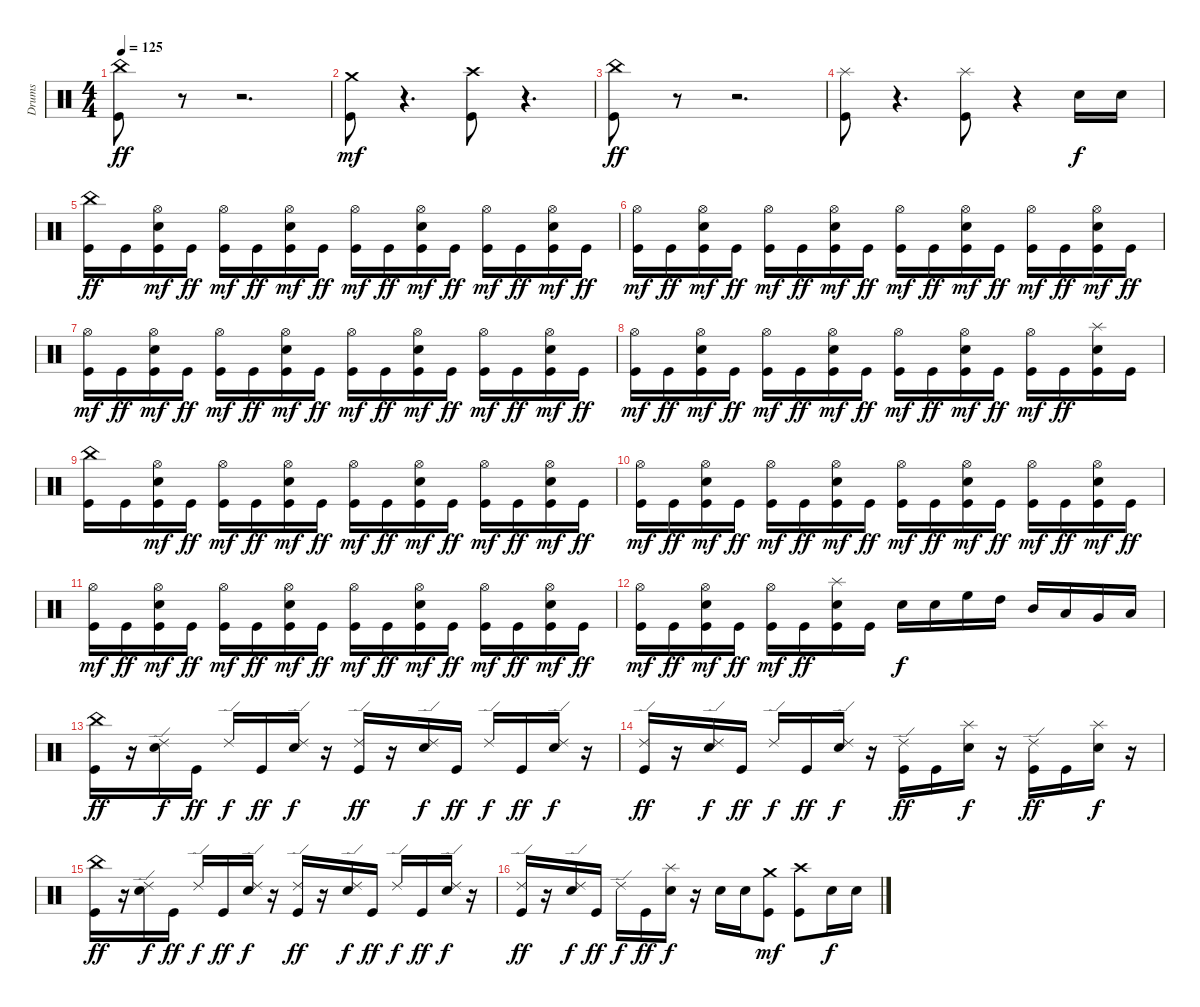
\track ("Drums" "Drums") {instrument percussion}
\staff {score}
\articulation defaults
\ts (4 4)
\tempo 125
\clef neutral
\ks c
("Kick (hit)" "China (hit)").8{dy ff} r.8 r.2{d} |
("Kick (hit)" "Crash medium (hit)").8{dy mf} r.4{d} ("Kick (hit)" "Crash high (hit)").8 r.4{d} |
("Kick (hit)" "China (hit)").8{dy ff} r.8 r.2{d} |
("Kick (hit)" "Splash (hit)").8 r.4{d} ("Kick (hit)" "Splash (hit)").8 r.4 "Electric Snare (hit)".16{dy f} "Electric Snare (hit)".16 |
("Kick (hit)" "China (hit)").16{dy ff} "Kick (hit)".16 ("Kick (hit)" "Electric Snare (hit)" "Hi-Hat (open)").16{dy mf} "Kick (hit)".16{dy ff} ("Kick (hit)" "Hi-Hat (open)").16{dy mf} "Kick (hit)".16{dy ff} ("Kick (hit)" "Electric Snare (hit)" "Hi-Hat (open)").16{dy mf} "Kick (hit)".16{dy ff} ("Kick (hit)" "Hi-Hat (open)").16{dy mf} "Kick (hit)".16{dy ff} ("Kick (hit)" "Electric Snare (hit)" "Hi-Hat (open)").16{dy mf} "Kick (hit)".16{dy ff} ("Kick (hit)" "Hi-Hat (open)").16{dy mf} "Kick (hit)".16{dy ff} ("Kick (hit)" "Electric Snare (hit)" "Hi-Hat (open)").16{dy mf} "Kick (hit)".16{dy ff} |
("Kick (hit)" "Hi-Hat (open)").16{dy mf} "Kick (hit)".16{dy ff} ("Kick (hit)" "Electric Snare (hit)" "Hi-Hat (open)").16{dy mf} "Kick (hit)".16{dy ff} ("Kick (hit)" "Hi-Hat (open)").16{dy mf} "Kick (hit)".16{dy ff} ("Kick (hit)" "Electric Snare (hit)" "Hi-Hat (open)").16{dy mf} "Kick (hit)".16{dy ff} ("Kick (hit)" "Hi-Hat (open)").16{dy mf} "Kick (hit)".16{dy ff} ("Kick (hit)" "Electric Snare (hit)" "Hi-Hat (open)").16{dy mf} "Kick (hit)".16{dy ff} ("Kick (hit)" "Hi-Hat (open)").16{dy mf} "Kick (hit)".16{dy ff} ("Kick (hit)" "Electric Snare (hit)" "Hi-Hat (open)").16{dy mf} "Kick (hit)".16{dy ff} |
("Kick (hit)" "Hi-Hat (open)").16{dy mf} "Kick (hit)".16{dy ff} ("Kick (hit)" "Electric Snare (hit)" "Hi-Hat (open)").16{dy mf} "Kick (hit)".16{dy ff} ("Kick (hit)" "Hi-Hat (open)").16{dy mf} "Kick (hit)".16{dy ff} ("Kick (hit)" "Electric Snare (hit)" "Hi-Hat (open)").16{dy mf} "Kick (hit)".16{dy ff} ("Kick (hit)" "Hi-Hat (open)").16{dy mf} "Kick (hit)".16{dy ff} ("Kick (hit)" "Electric Snare (hit)" "Hi-Hat (open)").16{dy mf} "Kick (hit)".16{dy ff} ("Kick (hit)" "Hi-Hat (open)").16{dy mf} "Kick (hit)".16{dy ff} ("Kick (hit)" "Electric Snare (hit)" "Hi-Hat (open)").16{dy mf} "Kick (hit)".16{dy ff} |
("Kick (hit)" "Hi-Hat (open)").16{dy mf} "Kick (hit)".16{dy ff} ("Kick (hit)" "Electric Snare (hit)" "Hi-Hat (open)").16{dy mf} "Kick (hit)".16{dy ff} ("Kick (hit)" "Hi-Hat (open)").16{dy mf} "Kick (hit)".16{dy ff} ("Kick (hit)" "Electric Snare (hit)" "Hi-Hat (open)").16{dy mf} "Kick (hit)".16{dy ff} ("Kick (hit)" "Hi-Hat (open)").16{dy mf} "Kick (hit)".16{dy ff} ("Kick (hit)" "Electric Snare (hit)" "Hi-Hat (open)").16{dy mf} "Kick (hit)".16{dy ff} ("Kick (hit)" "Hi-Hat (open)").16{dy mf} "Kick (hit)".16{dy ff} ("Kick (hit)" "Electric Snare (hit)" "Splash (hit)").16 "Kick (hit)".16 |
("Kick (hit)" "China (hit)").16 "Kick (hit)".16 ("Kick (hit)" "Electric Snare (hit)" "Hi-Hat (open)").16{dy mf} "Kick (hit)".16{dy ff} ("Kick (hit)" "Hi-Hat (open)").16{dy mf} "Kick (hit)".16{dy ff} ("Kick (hit)" "Electric Snare (hit)" "Hi-Hat (open)").16{dy mf} "Kick (hit)".16{dy ff} ("Kick (hit)" "Hi-Hat (open)").16{dy mf} "Kick (hit)".16{dy ff} ("Kick (hit)" "Electric Snare (hit)" "Hi-Hat (open)").16{dy mf} "Kick (hit)".16{dy ff} ("Kick (hit)" "Hi-Hat (open)").16{dy mf} "Kick (hit)".16{dy ff} ("Kick (hit)" "Electric Snare (hit)" "Hi-Hat (open)").16{dy mf} "Kick (hit)".16{dy ff} |
("Kick (hit)" "Hi-Hat (open)").16{dy mf} "Kick (hit)".16{dy ff} ("Kick (hit)" "Electric Snare (hit)" "Hi-Hat (open)").16{dy mf} "Kick (hit)".16{dy ff} ("Kick (hit)" "Hi-Hat (open)").16{dy mf} "Kick (hit)".16{dy ff} ("Kick (hit)" "Electric Snare (hit)" "Hi-Hat (open)").16{dy mf} "Kick (hit)".16{dy ff} ("Kick (hit)" "Hi-Hat (open)").16{dy mf} "Kick (hit)".16{dy ff} ("Kick (hit)" "Electric Snare (hit)" "Hi-Hat (open)").16{dy mf} "Kick (hit)".16{dy ff} ("Kick (hit)" "Hi-Hat (open)").16{dy mf} "Kick (hit)".16{dy ff} ("Kick (hit)" "Electric Snare (hit)" "Hi-Hat (open)").16{dy mf} "Kick (hit)".16{dy ff} |
("Kick (hit)" "Hi-Hat (open)").16{dy mf} "Kick (hit)".16{dy ff} ("Kick (hit)" "Electric Snare (hit)" "Hi-Hat (open)").16{dy mf} "Kick (hit)".16{dy ff} ("Kick (hit)" "Hi-Hat (open)").16{dy mf} "Kick (hit)".16{dy ff} ("Kick (hit)" "Electric Snare (hit)" "Hi-Hat (open)").16{dy mf} "Kick (hit)".16{dy ff} ("Kick (hit)" "Hi-Hat (open)").16{dy mf} "Kick (hit)".16{dy ff} ("Kick (hit)" "Electric Snare (hit)" "Hi-Hat (open)").16{dy mf} "Kick (hit)".16{dy ff} ("Kick (hit)" "Hi-Hat (open)").16{dy mf} "Kick (hit)".16{dy ff} ("Kick (hit)" "Electric Snare (hit)" "Hi-Hat (open)").16{dy mf} "Kick (hit)".16{dy ff} |
("Kick (hit)" "Hi-Hat (open)").16{dy mf} "Kick (hit)".16{dy ff} ("Kick (hit)" "Electric Snare (hit)" "Hi-Hat (open)").16{dy mf} "Kick (hit)".16{dy ff} ("Kick (hit)" "Hi-Hat (open)").16{dy mf} "Kick (hit)".16{dy ff} ("Kick (hit)" "Electric Snare (hit)" "Splash (hit)").16 "Kick (hit)".16 "Electric Snare (hit)".16{dy f} "Electric Snare (hit)".16 "High Floor Tom (hit)".16 "High Tom (hit)".16 "Mid Tom (hit)".16 "Low Tom (hit)".16 "Very Low Tom (hit)".16 "Low Floor Tom (hit)".16 |
("Kick (hit)" "China (hit)").16{dy ff} r.16 ("Electric Snare (hit)" "Ride (edge) 2").16{dy f} "Kick (hit)".16{dy ff} "Ride (edge) 2".16{dy f} "Kick (hit)".16{dy ff} ("Electric Snare (hit)" "Ride (edge) 2").16{dy f} r.16 ("Kick (hit)" "Ride (edge) 2").16{dy ff} r.16 ("Electric Snare (hit)" "Ride (edge) 2").16{dy f} "Kick (hit)".16{dy ff} "Ride (edge) 2".16{dy f} "Kick (hit)".16{dy ff} ("Electric Snare (hit)" "Ride (edge) 2").16{dy f} r.16 |
("Kick (hit)" "Ride (edge) 2").16{dy ff} r.16 ("Electric Snare (hit)" "Ride (edge) 2").16{dy f} "Kick (hit)".16{dy ff} "Ride (edge) 2".16{dy f} "Kick (hit)".16{dy ff} ("Electric Snare (hit)" "Ride (edge) 2").16{dy f} r.16 ("Kick (hit)" "Ride (edge) 2").16{dy ff} "Kick (hit)".16 ("Electric Snare (hit)" "Splash (hit)").16{dy f} r.16 ("Kick (hit)" "Ride (edge) 2").16{dy ff} "Kick (hit)".16 ("Electric Snare (hit)" "Splash (hit)").16{dy f} r.16 |
("Kick (hit)" "China (hit)").16{dy ff} r.16 ("Electric Snare (hit)" "Ride (edge) 2").16{dy f} "Kick (hit)".16{dy ff} "Ride (edge) 2".16{dy f} "Kick (hit)".16{dy ff} ("Electric Snare (hit)" "Ride (edge) 2").16{dy f} r.16 ("Kick (hit)" "Ride (edge) 2").16{dy ff} r.16 ("Electric Snare (hit)" "Ride (edge) 2").16{dy f} "Kick (hit)".16{dy ff} "Ride (edge) 2".16{dy f} "Kick (hit)".16{dy ff} ("Electric Snare (hit)" "Ride (edge) 2").16{dy f} r.16 |
("Kick (hit)" "Ride (edge) 2").16{dy ff} r.16 ("Electric Snare (hit)" "Ride (edge) 2").16{dy f} "Kick (hit)".16{dy ff} "Ride (edge) 2".16{dy f} "Kick (hit)".16{dy ff} ("Electric Snare (hit)" "Splash (hit)").16{dy f} r.16 "Electric Snare (hit)".16 "Electric Snare (hit)".16 ("Kick (hit)" "Crash medium (hit)").8{dy mf} ("Kick (hit)" "Crash high (hit)").8 "Electric Snare (hit)".16{dy f} "Electric Snare (hit)".16
